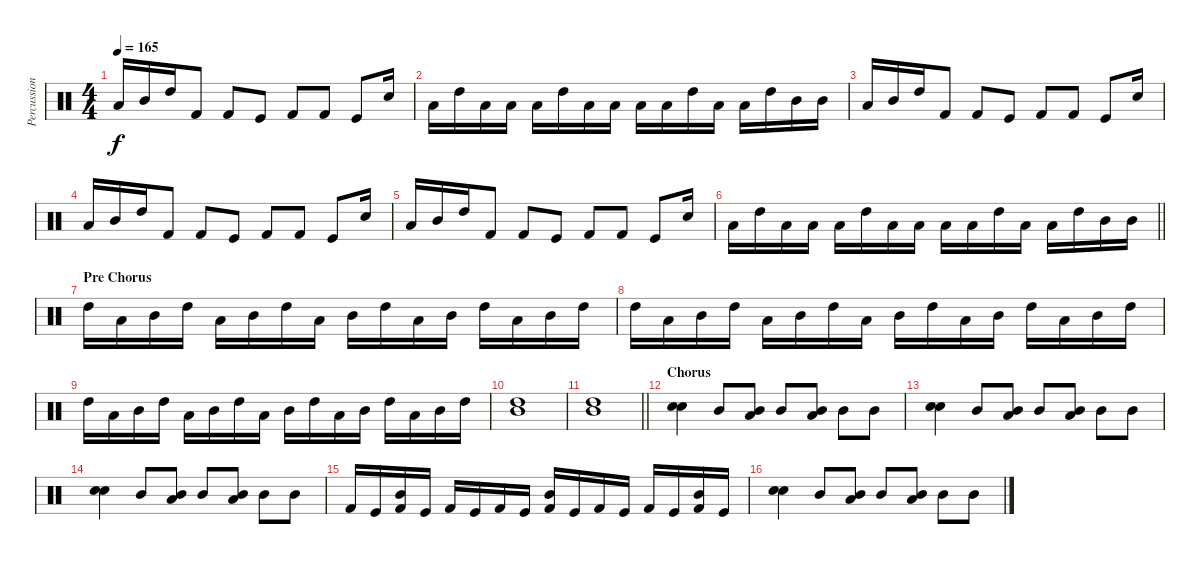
\track ("Percussion" "Percussion") {instrument percussion}
\staff {score}
\articulation defaults
\ts (4 4)
\tempo 165
\clef neutral
\ks c "Low Tom (hit)".16{dy f} "Mid Tom (hit)".16 "High Tom (hit)".16 "Kick (hit) 2".8 "Kick (hit) 2".8 "Kick (hit)".8 "Kick (hit) 2".8 "Kick (hit) 2".8 "Kick (hit)".8 "Electric Snare (hit)".16
|
"Low Tom (hit)".16 "High Tom (hit)".16 "Low Tom (hit)".16 "Low Tom (hit)".16 "Low Tom (hit)".16 "High Tom (hit)".16 "Low Tom (hit)".16 "Low Tom (hit)".16 "Low Tom (hit)".16 "Low Tom (hit)".16 "High Tom (hit)".16 "Low Tom (hit)".16 "Low Tom (hit)".16 "High Tom (hit)".16 "Mid Tom (hit)".16 "Mid Tom (hit)".16 |
"Low Tom (hit)".16 "Mid Tom (hit)".16 "High Tom (hit)".16 "Kick (hit) 2".8 "Kick (hit) 2".8 "Kick (hit)".8 "Kick (hit) 2".8 "Kick (hit) 2".8 "Kick (hit)".8 "Electric Snare (hit)".16 |
"Low Tom (hit)".16 "Mid Tom (hit)".16 "High Tom (hit)".16 "Kick (hit) 2".8 "Kick (hit) 2".8 "Kick (hit)".8 "Kick (hit) 2".8 "Kick (hit) 2".8 "Kick (hit)".8 "Electric Snare (hit)".16 |
"Low Tom (hit)".16 "Mid Tom (hit)".16 "High Tom (hit)".16 "Kick (hit) 2".8 "Kick (hit) 2".8 "Kick (hit)".8 "Kick (hit) 2".8 "Kick (hit) 2".8 "Kick (hit)".8 "Electric Snare (hit)".16 |
\barLineRight lightlight "Low Tom (hit)".16 "High Tom (hit)".16 "Low Tom (hit)".16 "Low Tom (hit)".16 "Low Tom (hit)".16 "High Tom (hit)".16 "Low Tom (hit)".16 "Low Tom (hit)".16 "Low Tom (hit)".16 "Low Tom (hit)".16 "High Tom (hit)".16 "Low Tom (hit)".16 "Low Tom (hit)".16 "High Tom (hit)".16 "Mid Tom (hit)".16 "Mid Tom (hit)".16
|
\section ("" "Pre Chorus")
"High Tom (hit)".16 "Low Tom (hit)".16 "Mid Tom (hit)".16 "High Tom (hit)".16 "Low Tom (hit)".16 "Mid Tom (hit)".16 "High Tom (hit)".16 "Low Tom (hit)".16 "Mid Tom (hit)".16 "High Tom (hit)".16 "Low Tom (hit)".16 "Mid Tom (hit)".16 "High Tom (hit)".16 "Low Tom (hit)".16 "Mid Tom (hit)".16 "High Tom (hit)".16 |
"High Tom (hit)".16 "Low Tom (hit)".16 "Mid Tom (hit)".16 "High Tom (hit)".16 "Low Tom (hit)".16 "Mid Tom (hit)".16 "High Tom (hit)".16 "Low Tom (hit)".16 "Mid Tom (hit)".16 "High Tom (hit)".16 "Low Tom (hit)".16 "Mid Tom (hit)".16 "High Tom (hit)".16 "Low Tom (hit)".16 "Mid Tom (hit)".16 "High Tom (hit)".16 |
"High Tom (hit)".16 "Low Tom (hit)".16 "Mid Tom (hit)".16 "High Tom (hit)".16 "Low Tom (hit)".16 "Mid Tom (hit)".16 "High Tom (hit)".16 "Low Tom (hit)".16 "Mid Tom (hit)".16 "High Tom (hit)".16 "Low Tom (hit)".16 "Mid Tom (hit)".16 "High Tom (hit)".16 "Low Tom (hit)".16 "Mid Tom (hit)".16 "High Tom (hit)".16 |
("Mid Tom (hit)" "High Tom (hit)").1 |
\barLineRight lightlight
("Mid Tom (hit)" "High Tom (hit)").1 |
\section ("" "Chorus")
("Electric Snare (hit)" "Snare (hit) 2").4 "Mid Tom (hit)".8 ("Low Tom (hit)" "Mid Tom (hit)").8 "Mid Tom (hit)".8 ("Low Tom (hit)" "Mid Tom (hit)").8 "Mid Tom (hit)".8 "Mid Tom (hit)".8 |
("Electric Snare (hit)" "Snare (hit) 2").4 "Mid Tom (hit)".8 ("Low Tom (hit)" "Mid Tom (hit)").8 "Mid Tom (hit)".8 ("Low Tom (hit)" "Mid Tom (hit)").8 "Mid Tom (hit)".8 "Mid Tom (hit)".8 |
("Electric Snare (hit)" "Snare (hit) 2").4 "Mid Tom (hit)".8 ("Low Tom (hit)" "Mid Tom (hit)").8 "Mid Tom (hit)".8 ("Low Tom (hit)" "Mid Tom (hit)").8 "Mid Tom (hit)".8 "Mid Tom (hit)".8 |
"Kick (hit) 2".16 "Kick (hit)".16 ("Kick (hit) 2" "Mid Tom (hit)").16 "Kick (hit)".16 "Kick (hit) 2".16 "Kick (hit)".16 "Kick (hit) 2".16 "Kick (hit)".16 ("Kick (hit) 2" "Mid Tom (hit)").16 "Kick (hit)".16 "Kick (hit) 2".16 "Kick (hit)".16 "Kick (hit) 2".16 "Kick (hit)".16 ("Kick (hit) 2" "Mid Tom (hit)").16 "Kick (hit)".16 |
("Electric Snare (hit)" "Snare (hit) 2").4 "Mid Tom (hit)".8 ("Low Tom (hit)" "Mid Tom (hit)").8 "Mid Tom (hit)".8 ("Low Tom (hit)" "Mid Tom (hit)").8 "Mid Tom (hit)".8 "Mid Tom (hit)".8
